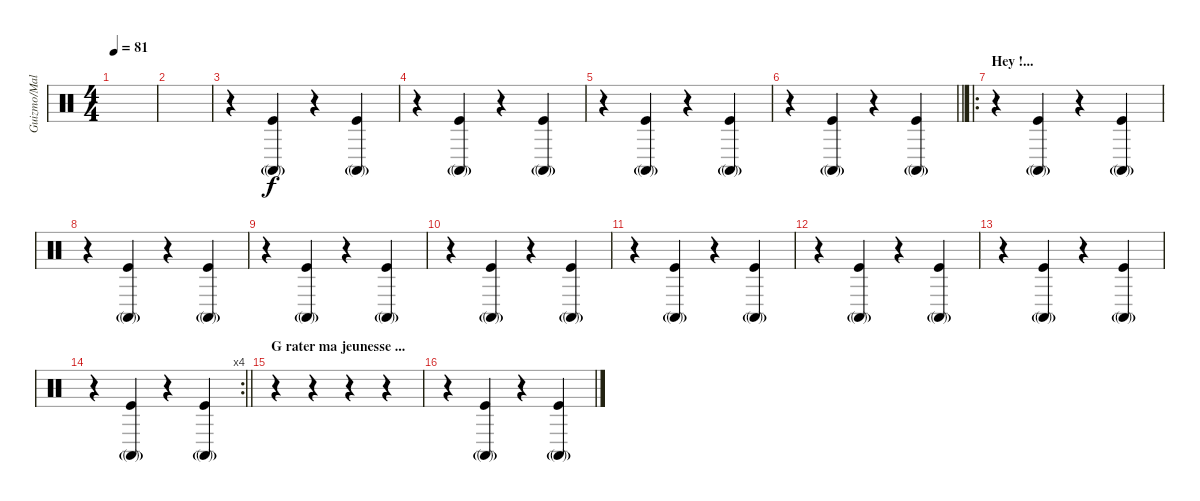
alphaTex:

\track ("Guizmo/Mali" "Guizmo/Mal") {instrument percussion}
\staff {score}
\articulation defaults
\ts (4 4)
\tempo 81
\clef neutral
\ks c
|
|
r.4 ("Kick (hit)" "Conga high (mute)"{g}).4 r.4 ("Kick (hit)" "Conga high (mute)"{g}).4 |
r.4 ("Kick (hit)" "Conga high (mute)"{g}).4 r.4 ("Kick (hit)" "Conga high (mute)"{g}).4 |
r.4 ("Kick (hit)" "Conga high (mute)"{g}).4 r.4 ("Kick (hit)" "Conga high (mute)"{g}).4 |
\barLineRight lightlight
r.4 ("Kick (hit)" "Conga high (mute)"{g}).4 r.4 ("Kick (hit)" "Conga high (mute)"{g}).4 |
\ro
\section ("" "Hey !...")
r.4 ("Kick (hit)" "Conga high (mute)"{g}).4 r.4 ("Kick (hit)" "Conga high (mute)"{g}).4 |
r.4 ("Kick (hit)" "Conga high (mute)"{g}).4 r.4 ("Kick (hit)" "Conga high (mute)"{g}).4 |
r.4 ("Kick (hit)" "Conga high (mute)"{g}).4 r.4 ("Kick (hit)" "Conga high (mute)"{g}).4 |
r.4 ("Kick (hit)" "Conga high (mute)"{g}).4 r.4 ("Kick (hit)" "Conga high (mute)"{g}).4 |
r.4 ("Kick (hit)" "Conga high (mute)"{g}).4 r.4 ("Kick (hit)" "Conga high (mute)"{g}).4 |
r.4 ("Kick (hit)" "Conga high (mute)"{g}).4 r.4 ("Kick (hit)" "Conga high (mute)"{g}).4 |
r.4 ("Kick (hit)" "Conga high (mute)"{g}).4 r.4 ("Kick (hit)" "Conga high (mute)"{g}).4 |
\rc 4
\barLineRight lightlight
r.4 ("Kick (hit)" "Conga high (mute)"{g}).4 r.4 ("Kick (hit)" "Conga high (mute)"{g}).4 |
\section ("" "G rater ma jeunesse ...")
r.4 r.4 r.4 r.4 |
r.4 ("Kick (hit)" "Conga high (mute)"{g}).4 r.4 ("Kick (hit)" "Conga high (mute)"{g}).4
